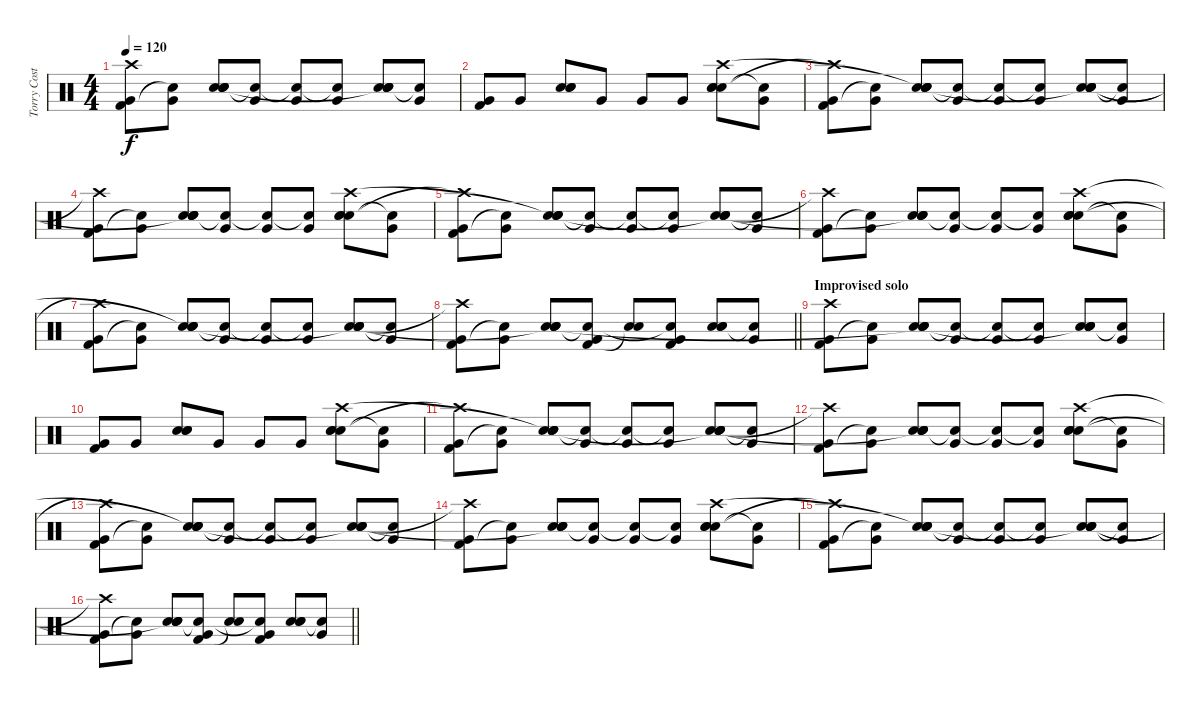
\track ("Torry Costellano" "Torry Cost") {instrument percussion}
\staff {score}
\articulation defaults
\ts (4 4)
\tempo 120
\clef neutral
\ks c
("Very Low Tom (hit)" "Kick (hit) 2" "Crash high (hit)").8{dy f} ("Very Low Tom (hit)" "Snare (hit)"{t}).8 ("Hand Clap (hit)" "Hand Clap (hit)" "Electric Snare (hit)" "Snare (hit)").8 ("Very Low Tom (hit)" "Snare (hit)"{t}).8 ("Very Low Tom (hit)" "Snare (hit)"{t}).8 ("Very Low Tom (hit)" "Snare (hit)"{t}).8 ("Hand Clap (hit)" "Hand Clap (hit)" "Electric Snare (hit)" "Snare (hit)"{t}).8 ("Very Low Tom (hit)" "Snare (hit)"{t}).8 |
("Very Low Tom (hit)" "Kick (hit) 2").8 "Very Low Tom (hit)".8 ("Hand Clap (hit)" "Hand Clap (hit)" "Electric Snare (hit)").8 "Very Low Tom (hit)".8 "Very Low Tom (hit)".8 "Very Low Tom (hit)".8 ("Hand Clap (hit)" "Hand Clap (hit)" "Electric Snare (hit)" "Crash high (hit)").8 ("Very Low Tom (hit)" "Snare (hit)"{t}).8 |
("Very Low Tom (hit)" "Kick (hit) 2" "Crash high (hit)"{t}).8 ("Very Low Tom (hit)" "Snare (hit)"{t}).8 ("Hand Clap (hit)" "Hand Clap (hit)" "Electric Snare (hit)" "Snare (hit)"{t}).8 ("Very Low Tom (hit)" "Snare (hit)"{t}).8 ("Very Low Tom (hit)" "Snare (hit)"{t}).8 ("Very Low Tom (hit)" "Snare (hit)"{t}).8 ("Hand Clap (hit)" "Hand Clap (hit)" "Electric Snare (hit)" "Snare (hit)"{t}).8 ("Very Low Tom (hit)" "Snare (hit)"{t}).8 |
("Very Low Tom (hit)" "Kick (hit) 2" "Crash high (hit)"{t}).8 ("Very Low Tom (hit)" "Snare (hit)"{t}).8 ("Hand Clap (hit)" "Hand Clap (hit)" "Electric Snare (hit)" "Snare (hit)"{t}).8 ("Very Low Tom (hit)" "Snare (hit)"{t}).8 ("Very Low Tom (hit)" "Snare (hit)"{t}).8 ("Very Low Tom (hit)" "Snare (hit)"{t}).8 ("Hand Clap (hit)" "Hand Clap (hit)" "Electric Snare (hit)" "Crash high (hit)").8 ("Very Low Tom (hit)" "Snare (hit)"{t}).8 |
("Very Low Tom (hit)" "Kick (hit) 2" "Crash high (hit)"{t}).8 ("Very Low Tom (hit)" "Snare (hit)"{t}).8 ("Hand Clap (hit)" "Hand Clap (hit)" "Electric Snare (hit)" "Snare (hit)"{t}).8 ("Very Low Tom (hit)" "Snare (hit)"{t}).8 ("Very Low Tom (hit)" "Snare (hit)"{t}).8 ("Very Low Tom (hit)" "Snare (hit)"{t}).8 ("Hand Clap (hit)" "Hand Clap (hit)" "Electric Snare (hit)" "Snare (hit)"{t}).8 ("Very Low Tom (hit)" "Snare (hit)"{t}).8 |
("Very Low Tom (hit)" "Kick (hit) 2" "Crash high (hit)"{t}).8 ("Very Low Tom (hit)" "Snare (hit)"{t}).8 ("Hand Clap (hit)" "Hand Clap (hit)" "Electric Snare (hit)" "Snare (hit)"{t}).8 ("Very Low Tom (hit)" "Snare (hit)"{t}).8 ("Very Low Tom (hit)" "Snare (hit)"{t}).8 ("Very Low Tom (hit)" "Snare (hit)"{t}).8 ("Hand Clap (hit)" "Hand Clap (hit)" "Electric Snare (hit)" "Crash high (hit)").8 ("Very Low Tom (hit)" "Snare (hit)"{t}).8 |
("Very Low Tom (hit)" "Kick (hit) 2" "Crash high (hit)"{t}).8 ("Very Low Tom (hit)" "Snare (hit)"{t}).8 ("Hand Clap (hit)" "Hand Clap (hit)" "Electric Snare (hit)" "Snare (hit)"{t}).8 ("Very Low Tom (hit)" "Snare (hit)"{t}).8 ("Very Low Tom (hit)" "Snare (hit)"{t}).8 ("Very Low Tom (hit)" "Snare (hit)"{t}).8 ("Hand Clap (hit)" "Hand Clap (hit)" "Electric Snare (hit)" "Snare (hit)"{t}).8 ("Very Low Tom (hit)" "Snare (hit)"{t}).8 |
\barLineRight lightlight
("Very Low Tom (hit)" "Kick (hit) 2" "Crash high (hit)"{t}).8 ("Very Low Tom (hit)" "Snare (hit)"{t}).8 ("Hand Clap (hit)" "Hand Clap (hit)" "Electric Snare (hit)" "Snare (hit)"{t}).8 ("Very Low Tom (hit)" "Kick (hit) 2" "Snare (hit)"{t}).8 ("Electric Snare (hit)" "Snare (hit)"{t}).8 ("Very Low Tom (hit)" "Kick (hit) 2" "Snare (hit)"{t}).8 ("Hand Clap (hit)" "Hand Clap (hit)" "Electric Snare (hit)").8 ("Very Low Tom (hit)" "Snare (hit)"{t}).8 |
\section ("" "Improvised solo")
("Very Low Tom (hit)" "Kick (hit) 2" "Crash high (hit)").8 ("Very Low Tom (hit)" "Snare (hit)"{t}).8 ("Hand Clap (hit)" "Hand Clap (hit)" "Electric Snare (hit)" "Snare (hit)"{t}).8 ("Very Low Tom (hit)" "Snare (hit)"{t}).8 ("Very Low Tom (hit)" "Snare (hit)"{t}).8 ("Very Low Tom (hit)" "Snare (hit)"{t}).8 ("Hand Clap (hit)" "Hand Clap (hit)" "Electric Snare (hit)" "Snare (hit)"{t}).8 ("Very Low Tom (hit)" "Snare (hit)"{t}).8 |
("Very Low Tom (hit)" "Kick (hit) 2").8 "Very Low Tom (hit)".8 ("Hand Clap (hit)" "Hand Clap (hit)" "Electric Snare (hit)").8 "Very Low Tom (hit)".8 "Very Low Tom (hit)".8 "Very Low Tom (hit)".8 ("Hand Clap (hit)" "Hand Clap (hit)" "Electric Snare (hit)" "Crash high (hit)").8 ("Very Low Tom (hit)" "Snare (hit)"{t}).8 |
("Very Low Tom (hit)" "Kick (hit) 2" "Crash high (hit)"{t}).8 ("Very Low Tom (hit)" "Snare (hit)"{t}).8 ("Hand Clap (hit)" "Hand Clap (hit)" "Electric Snare (hit)" "Snare (hit)"{t}).8 ("Very Low Tom (hit)" "Snare (hit)"{t}).8 ("Very Low Tom (hit)" "Snare (hit)"{t}).8 ("Very Low Tom (hit)" "Snare (hit)"{t}).8 ("Hand Clap (hit)" "Hand Clap (hit)" "Electric Snare (hit)" "Snare (hit)"{t}).8 ("Very Low Tom (hit)" "Snare (hit)"{t}).8 |
("Very Low Tom (hit)" "Kick (hit) 2" "Crash high (hit)"{t}).8 ("Very Low Tom (hit)" "Snare (hit)"{t}).8 ("Hand Clap (hit)" "Hand Clap (hit)" "Electric Snare (hit)" "Snare (hit)"{t}).8 ("Very Low Tom (hit)" "Snare (hit)"{t}).8 ("Very Low Tom (hit)" "Snare (hit)"{t}).8 ("Very Low Tom (hit)" "Snare (hit)"{t}).8 ("Hand Clap (hit)" "Hand Clap (hit)" "Electric Snare (hit)" "Crash high (hit)").8 ("Very Low Tom (hit)" "Snare (hit)"{t}).8 |
("Very Low Tom (hit)" "Kick (hit) 2" "Crash high (hit)"{t}).8 ("Very Low Tom (hit)" "Snare (hit)"{t}).8 ("Hand Clap (hit)" "Hand Clap (hit)" "Electric Snare (hit)" "Snare (hit)"{t}).8 ("Very Low Tom (hit)" "Snare (hit)"{t}).8 ("Very Low Tom (hit)" "Snare (hit)"{t}).8 ("Very Low Tom (hit)" "Snare (hit)"{t}).8 ("Hand Clap (hit)" "Hand Clap (hit)" "Electric Snare (hit)" "Snare (hit)"{t}).8 ("Very Low Tom (hit)" "Snare (hit)"{t}).8 |
("Very Low Tom (hit)" "Kick (hit) 2" "Crash high (hit)"{t}).8 ("Very Low Tom (hit)" "Snare (hit)"{t}).8 ("Hand Clap (hit)" "Hand Clap (hit)" "Electric Snare (hit)" "Snare (hit)"{t}).8 ("Very Low Tom (hit)" "Snare (hit)"{t}).8 ("Very Low Tom (hit)" "Snare (hit)"{t}).8 ("Very Low Tom (hit)" "Snare (hit)"{t}).8 ("Hand Clap (hit)" "Hand Clap (hit)" "Electric Snare (hit)" "Crash high (hit)").8 ("Very Low Tom (hit)" "Snare (hit)"{t}).8 |
("Very Low Tom (hit)" "Kick (hit) 2" "Crash high (hit)"{t}).8 ("Very Low Tom (hit)" "Snare (hit)"{t}).8 ("Hand Clap (hit)" "Hand Clap (hit)" "Electric Snare (hit)" "Snare (hit)"{t}).8 ("Very Low Tom (hit)" "Snare (hit)"{t}).8 ("Very Low Tom (hit)" "Snare (hit)"{t}).8 ("Very Low Tom (hit)" "Snare (hit)"{t}).8 ("Hand Clap (hit)" "Hand Clap (hit)" "Electric Snare (hit)" "Snare (hit)"{t}).8 ("Very Low Tom (hit)" "Snare (hit)"{t}).8 |
\barLineRight lightlight
("Very Low Tom (hit)" "Kick (hit) 2" "Crash high (hit)"{t}).8 ("Very Low Tom (hit)" "Snare (hit)"{t}).8 ("Hand Clap (hit)" "Hand Clap (hit)" "Electric Snare (hit)" "Snare (hit)"{t}).8 ("Very Low Tom (hit)" "Kick (hit) 2" "Snare (hit)"{t}).8 ("Electric Snare (hit)" "Snare (hit)"{t}).8 ("Very Low Tom (hit)" "Kick (hit) 2" "Snare (hit)"{t}).8 ("Hand Clap (hit)" "Hand Clap (hit)" "Electric Snare (hit)").8 ("Very Low Tom (hit)" "Snare (hit)"{t}).8
